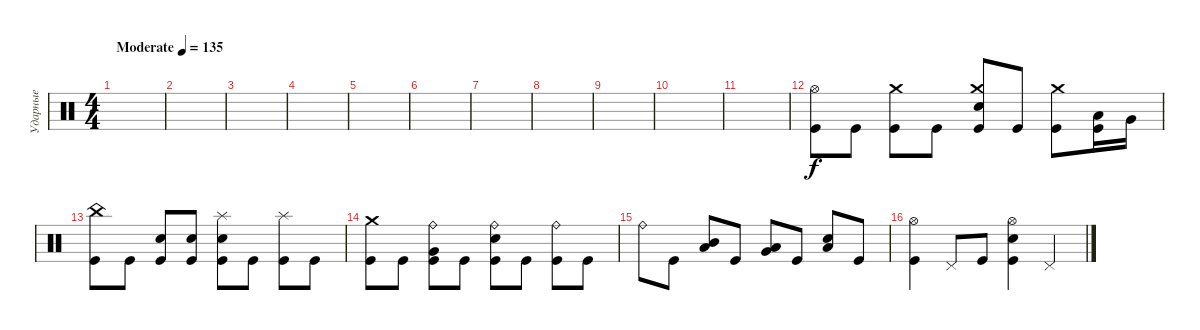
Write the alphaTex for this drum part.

\track ("Ударные" "Ударные") {instrument percussion}
\staff {score}
\articulation defaults
\ts (4 4)
\tempo (135 "Moderate")
\clef neutral
\ks c
|
|
|
|
|
|
|
|
|
|
|
("Hi-Hat (open)" "Kick (hit)").8 "Kick (hit)".8 ("Crash medium (hit)" "Kick (hit)").8 "Kick (hit)".8 ("Crash medium (hit)" "Electric Snare (hit)" "Kick (hit)").8 "Kick (hit)".8 ("Crash medium (hit)" "Kick (hit)").8 ("Low Tom (hit)" "Kick (hit)").16 "Very Low Tom (hit)".16 |
("China (hit)" "Kick (hit)").8 "Kick (hit)".8 ("Electric Snare (hit)" "Kick (hit)").8 ("Electric Snare (hit)" "Kick (hit)").8 ("Splash (hit)" "Electric Snare (hit)" "Kick (hit)").8 "Kick (hit)".8 ("Splash (hit)" "Kick (hit)").8 "Kick (hit)".8 |
("Crash medium (hit)" "Kick (hit)").8 "Kick (hit)".8 ("Ride (bell)" "Very Low Tom (hit)" "Kick (hit)").8 "Kick (hit)".8 ("Ride (bell)" "Electric Snare (hit)" "Kick (hit)").8 "Kick (hit)".8 ("Ride (bell)" "Kick (hit)").8 "Kick (hit)".8 |
"Ride (bell)".8 "Kick (hit)".8 ("Mid Tom (hit)" "Low Tom (hit)").8 "Kick (hit)".8 ("Low Tom (hit)" "Very Low Tom (hit)").8 "Kick (hit)".8 ("Low Floor Tom (hit)" "Electric Snare (hit)").8 "Kick (hit)".8 |
("Hi-Hat (open)" "Kick (hit)").4 "Pedal Hi-Hat (hit)".8 "Kick (hit)".8 ("Hi-Hat (open)" "Electric Snare (hit)" "Kick (hit)").4 "Pedal Hi-Hat (hit)".4
